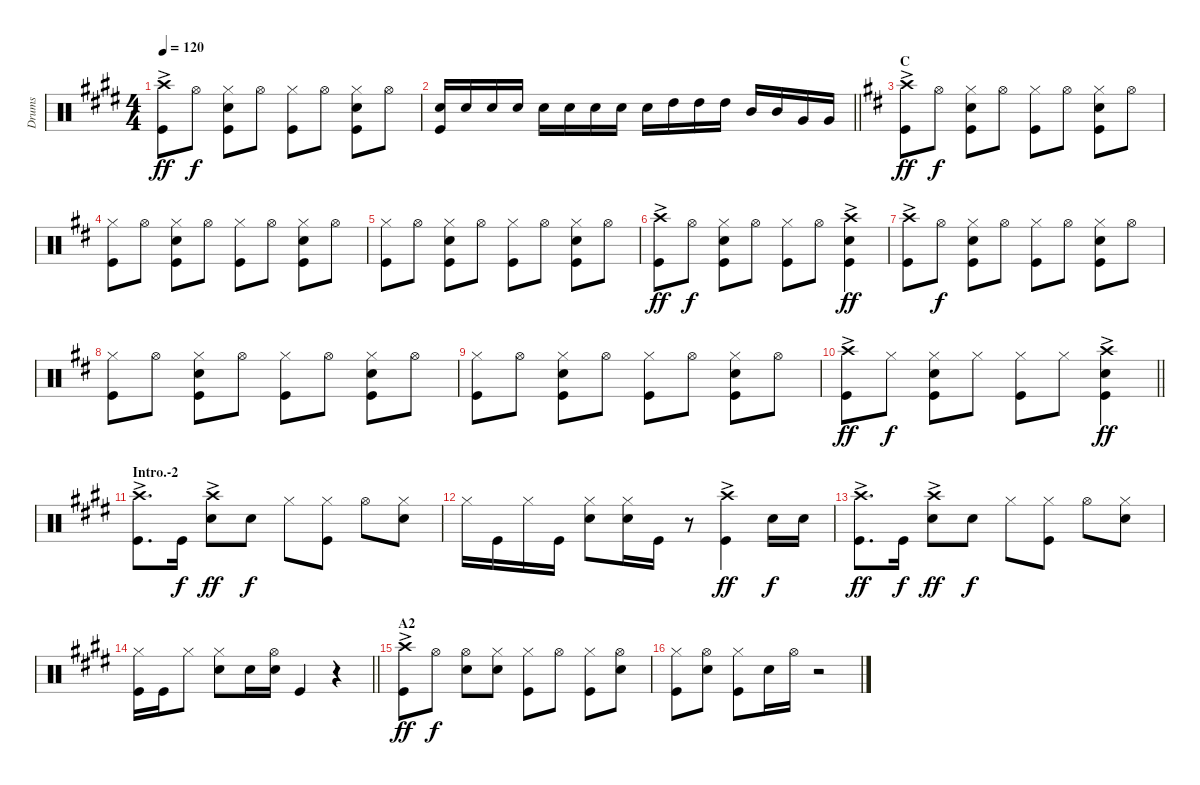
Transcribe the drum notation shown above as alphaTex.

\track ("Drums" "Drums") {instrument percussion}
\staff {score}
\articulation defaults
\ts (4 4)
\tempo 120
\clef neutral
\ks e
("Crash high (hit)"{ac} "Kick (hit)").8{dy ff} "Hi-Hat (open)".8{dy f} ("Hi-Hat (closed)" "Kick (hit)" "Snare (hit) 2").8 "Hi-Hat (open)".8 ("Kick (hit)" "Hi-Hat (closed)").8 "Hi-Hat (open)".8 ("Hi-Hat (closed)" "Kick (hit)" "Snare (hit) 2").8 "Hi-Hat (open)".8 |
\barLineRight lightlight
("Kick (hit)" "Snare (hit) 2").16 "Snare (hit) 2".16 "Snare (hit) 2".16 "Snare (hit) 2".16 "Snare (hit) 2".16 "Snare (hit) 2".16 "Snare (hit) 2".16 "Snare (hit) 2".16 "Snare (hit) 2".16 "High Tom (hit)".16 "High Tom (hit)".16 "High Tom (hit)".16 "Mid Tom (hit)".16 "Mid Tom (hit)".16 "Very Low Tom (hit)".16 "Very Low Tom (hit)".16 |
\section ("" "C")
\ks d
("Crash high (hit)"{ac} "Kick (hit)").8{dy ff} "Hi-Hat (open)".8{dy f} ("Hi-Hat (closed)" "Kick (hit)" "Snare (hit) 2").8 "Hi-Hat (open)".8 ("Hi-Hat (closed)" "Kick (hit)").8 "Hi-Hat (open)".8 ("Hi-Hat (closed)" "Kick (hit)" "Snare (hit) 2").8 "Hi-Hat (open)".8 |
("Hi-Hat (closed)" "Kick (hit)").8 "Hi-Hat (open)".8 ("Hi-Hat (closed)" "Kick (hit)" "Snare (hit) 2").8 "Hi-Hat (open)".8 ("Hi-Hat (closed)" "Kick (hit)").8 "Hi-Hat (open)".8 ("Hi-Hat (closed)" "Kick (hit)" "Snare (hit) 2").8 "Hi-Hat (open)".8 |
("Hi-Hat (closed)" "Kick (hit)").8 "Hi-Hat (open)".8 ("Hi-Hat (closed)" "Kick (hit)" "Snare (hit) 2").8 "Hi-Hat (open)".8 ("Hi-Hat (closed)" "Kick (hit)").8 "Hi-Hat (open)".8 ("Hi-Hat (closed)" "Kick (hit)" "Snare (hit) 2").8 "Hi-Hat (open)".8 |
("Crash high (hit)"{ac} "Kick (hit)").8{dy ff} "Hi-Hat (open)".8{dy f} ("Hi-Hat (closed)" "Kick (hit)" "Snare (hit) 2").8 "Hi-Hat (open)".8 ("Hi-Hat (closed)" "Kick (hit)").8 "Hi-Hat (open)".8 ("Crash high (hit)"{ac} "Kick (hit)" "Snare (hit) 2").4{dy ff} |
("Crash high (hit)"{ac} "Kick (hit)").8 "Hi-Hat (open)".8{dy f} ("Hi-Hat (closed)" "Kick (hit)" "Snare (hit) 2").8 "Hi-Hat (open)".8 ("Hi-Hat (closed)" "Kick (hit)").8 "Hi-Hat (open)".8 ("Hi-Hat (closed)" "Kick (hit)" "Snare (hit) 2").8 "Hi-Hat (open)".8 |
("Hi-Hat (closed)" "Kick (hit)").8 "Hi-Hat (open)".8 ("Hi-Hat (closed)" "Kick (hit)" "Snare (hit) 2").8 "Hi-Hat (open)".8 ("Hi-Hat (closed)" "Kick (hit)").8 "Hi-Hat (open)".8 ("Hi-Hat (closed)" "Kick (hit)" "Snare (hit) 2").8 "Hi-Hat (open)".8 |
("Hi-Hat (closed)" "Kick (hit)").8 "Hi-Hat (open)".8 ("Hi-Hat (closed)" "Kick (hit)" "Snare (hit) 2").8 "Hi-Hat (open)".8 ("Hi-Hat (closed)" "Kick (hit)").8 "Hi-Hat (open)".8 ("Hi-Hat (closed)" "Kick (hit)" "Snare (hit) 2").8 "Hi-Hat (open)".8 |
\barLineRight lightlight
("Crash high (hit)"{ac} "Kick (hit)").8{dy ff} "Hi-Hat (closed)".8{dy f} ("Hi-Hat (closed)" "Kick (hit)" "Snare (hit) 2").8 "Hi-Hat (closed)".8 ("Hi-Hat (closed)" "Kick (hit)").8 "Hi-Hat (closed)".8 ("Crash high (hit)"{ac} "Snare (hit) 2" "Kick (hit)").4{dy ff} |
\section ("" "Intro.-2")
\ks e
("Crash high (hit)"{ac} "Kick (hit)").8{d} "Kick (hit)".16{dy f} ("Crash high (hit)"{ac} "Snare (hit) 2").8{dy ff} "Snare (hit) 2".8{dy f} "Hi-Hat (closed)".8 ("Hi-Hat (closed)" "Kick (hit)").8 "Hi-Hat (open)".8 ("Hi-Hat (closed)" "Snare (hit) 2").8 |
"Hi-Hat (closed)".16 "Kick (hit)".16 "Hi-Hat (closed)".16 "Kick (hit)".16 ("Hi-Hat (closed)" "Snare (hit) 2").8 ("Hi-Hat (closed)" "Snare (hit) 2").16 "Kick (hit)".16 r.8 ("Crash high (hit)"{ac} "Kick (hit)").4{dy ff} "Snare (hit) 2".16{dy f} "Snare (hit) 2".16 |
("Crash high (hit)"{ac} "Kick (hit)").8{d dy ff} "Kick (hit)".16{dy f} ("Crash high (hit)"{ac} "Snare (hit) 2").8{dy ff} "Snare (hit) 2".8{dy f} "Hi-Hat (closed)".8 ("Hi-Hat (closed)" "Kick (hit)").8 "Hi-Hat (open)".8 ("Hi-Hat (closed)" "Snare (hit) 2").8 |
\barLineRight lightlight
("Hi-Hat (closed)" "Kick (hit)").16 "Kick (hit)".16 "Hi-Hat (closed)".8 ("Hi-Hat (closed)" "Snare (hit) 2").8 "Snare (hit) 2".16 ("Snare (hit) 2" "Hi-Hat (open)").16 "Kick (hit)".4 r.4 |
\section ("" "A2")
("Crash high (hit)"{ac} "Kick (hit)").8{dy ff} "Hi-Hat (open)".8{dy f} ("Hi-Hat (open)" "Snare (hit) 2").8 ("Hi-Hat (closed)" "Snare (hit) 2").8 ("Hi-Hat (closed)" "Kick (hit)").8 "Hi-Hat (open)".8 ("Kick (hit)" "Hi-Hat (closed)").8 ("Hi-Hat (open)" "Snare (hit) 2").8 |
("Hi-Hat (closed)" "Kick (hit)").8 ("Hi-Hat (open)" "Snare (hit) 2").8 ("Hi-Hat (closed)" "Kick (hit)").8 "Snare (hit) 2".16 "Hi-Hat (open)".16 r.2
